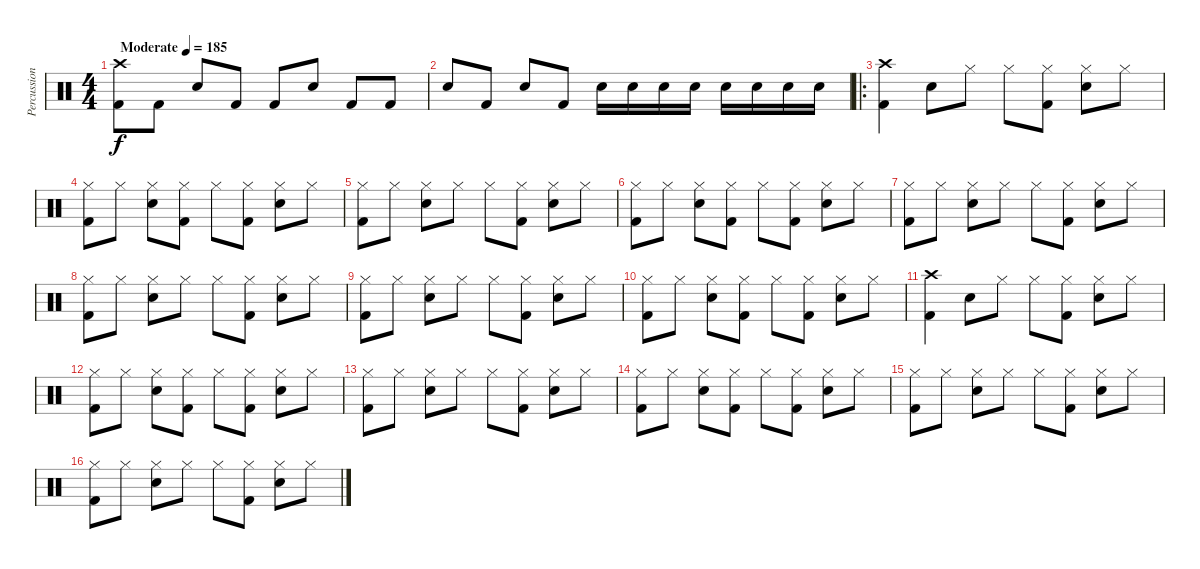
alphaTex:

\track ("Percussion" "Percussion") {instrument percussion}
\staff {score}
\articulation defaults
\ts (4 4)
\tempo (185 "Moderate")
\clef neutral
\ks c
("Crash high (hit)" "Kick (hit) 2").8{dy f} "Kick (hit) 2".8 "Snare (hit) 2".8 "Kick (hit) 2".8 "Kick (hit) 2".8 "Snare (hit) 2".8 "Kick (hit) 2".8 "Kick (hit) 2".8 |
"Snare (hit) 2".8 "Kick (hit) 2".8 "Snare (hit) 2".8 "Kick (hit) 2".8 "Snare (hit) 2".16 "Snare (hit) 2".16 "Snare (hit) 2".16 "Snare (hit) 2".16 "Snare (hit) 2".16 "Snare (hit) 2".16 "Snare (hit) 2".16 "Snare (hit) 2".16 |
\ro
("Crash high (hit)" "Kick (hit) 2").4 "Snare (hit) 2".8 "Hi-Hat (closed)".8 "Hi-Hat (closed)".8 ("Hi-Hat (closed)" "Kick (hit) 2").8 ("Hi-Hat (closed)" "Snare (hit) 2").8 "Hi-Hat (closed)".8 |
("Hi-Hat (closed)" "Kick (hit) 2").8 "Hi-Hat (closed)".8 ("Hi-Hat (closed)" "Snare (hit) 2").8 ("Hi-Hat (closed)" "Kick (hit) 2").8 "Hi-Hat (closed)".8 ("Hi-Hat (closed)" "Kick (hit) 2").8 ("Hi-Hat (closed)" "Snare (hit) 2").8 "Hi-Hat (closed)".8 |
("Hi-Hat (closed)" "Kick (hit) 2").8 "Hi-Hat (closed)".8 ("Hi-Hat (closed)" "Snare (hit) 2").8 "Hi-Hat (closed)".8 "Hi-Hat (closed)".8 ("Hi-Hat (closed)" "Kick (hit) 2").8 ("Hi-Hat (closed)" "Snare (hit) 2").8 "Hi-Hat (closed)".8 |
("Hi-Hat (closed)" "Kick (hit) 2").8 "Hi-Hat (closed)".8 ("Hi-Hat (closed)" "Snare (hit) 2").8 ("Hi-Hat (closed)" "Kick (hit) 2").8 "Hi-Hat (closed)".8 ("Hi-Hat (closed)" "Kick (hit) 2").8 ("Hi-Hat (closed)" "Snare (hit) 2").8 "Hi-Hat (closed)".8 |
("Hi-Hat (closed)" "Kick (hit) 2").8 "Hi-Hat (closed)".8 ("Hi-Hat (closed)" "Snare (hit) 2").8 "Hi-Hat (closed)".8 "Hi-Hat (closed)".8 ("Hi-Hat (closed)" "Kick (hit) 2").8 ("Hi-Hat (closed)" "Snare (hit) 2").8 "Hi-Hat (closed)".8 |
("Hi-Hat (closed)" "Kick (hit) 2").8 "Hi-Hat (closed)".8 ("Hi-Hat (closed)" "Snare (hit) 2").8 "Hi-Hat (closed)".8 "Hi-Hat (closed)".8 ("Hi-Hat (closed)" "Kick (hit) 2").8 ("Hi-Hat (closed)" "Snare (hit) 2").8 "Hi-Hat (closed)".8 |
("Hi-Hat (closed)" "Kick (hit) 2").8 "Hi-Hat (closed)".8 ("Hi-Hat (closed)" "Snare (hit) 2").8 "Hi-Hat (closed)".8 "Hi-Hat (closed)".8 ("Hi-Hat (closed)" "Kick (hit) 2").8 ("Hi-Hat (closed)" "Snare (hit) 2").8 "Hi-Hat (closed)".8 |
("Hi-Hat (closed)" "Kick (hit) 2").8 "Hi-Hat (closed)".8 ("Hi-Hat (closed)" "Snare (hit) 2").8 ("Hi-Hat (closed)" "Kick (hit) 2").8 "Hi-Hat (closed)".8 ("Hi-Hat (closed)" "Kick (hit) 2").8 ("Hi-Hat (closed)" "Snare (hit) 2").8 "Hi-Hat (closed)".8 |
("Crash high (hit)" "Kick (hit) 2").4 "Snare (hit) 2".8 "Hi-Hat (closed)".8 "Hi-Hat (closed)".8 ("Hi-Hat (closed)" "Kick (hit) 2").8 ("Hi-Hat (closed)" "Snare (hit) 2").8 "Hi-Hat (closed)".8 |
("Hi-Hat (closed)" "Kick (hit) 2").8 "Hi-Hat (closed)".8 ("Hi-Hat (closed)" "Snare (hit) 2").8 ("Hi-Hat (closed)" "Kick (hit) 2").8 "Hi-Hat (closed)".8 ("Hi-Hat (closed)" "Kick (hit) 2").8 ("Hi-Hat (closed)" "Snare (hit) 2").8 "Hi-Hat (closed)".8 |
("Hi-Hat (closed)" "Kick (hit) 2").8 "Hi-Hat (closed)".8 ("Hi-Hat (closed)" "Snare (hit) 2").8 "Hi-Hat (closed)".8 "Hi-Hat (closed)".8 ("Hi-Hat (closed)" "Kick (hit) 2").8 ("Hi-Hat (closed)" "Snare (hit) 2").8 "Hi-Hat (closed)".8 |
("Hi-Hat (closed)" "Kick (hit) 2").8 "Hi-Hat (closed)".8 ("Hi-Hat (closed)" "Snare (hit) 2").8 ("Hi-Hat (closed)" "Kick (hit) 2").8 "Hi-Hat (closed)".8 ("Hi-Hat (closed)" "Kick (hit) 2").8 ("Hi-Hat (closed)" "Snare (hit) 2").8 "Hi-Hat (closed)".8 |
("Hi-Hat (closed)" "Kick (hit) 2").8 "Hi-Hat (closed)".8 ("Hi-Hat (closed)" "Snare (hit) 2").8 "Hi-Hat (closed)".8 "Hi-Hat (closed)".8 ("Hi-Hat (closed)" "Kick (hit) 2").8 ("Hi-Hat (closed)" "Snare (hit) 2").8 "Hi-Hat (closed)".8 |
("Hi-Hat (closed)" "Kick (hit) 2").8 "Hi-Hat (closed)".8 ("Hi-Hat (closed)" "Snare (hit) 2").8 "Hi-Hat (closed)".8 "Hi-Hat (closed)".8 ("Hi-Hat (closed)" "Kick (hit) 2").8 ("Hi-Hat (closed)" "Snare (hit) 2").8 "Hi-Hat (closed)".8
